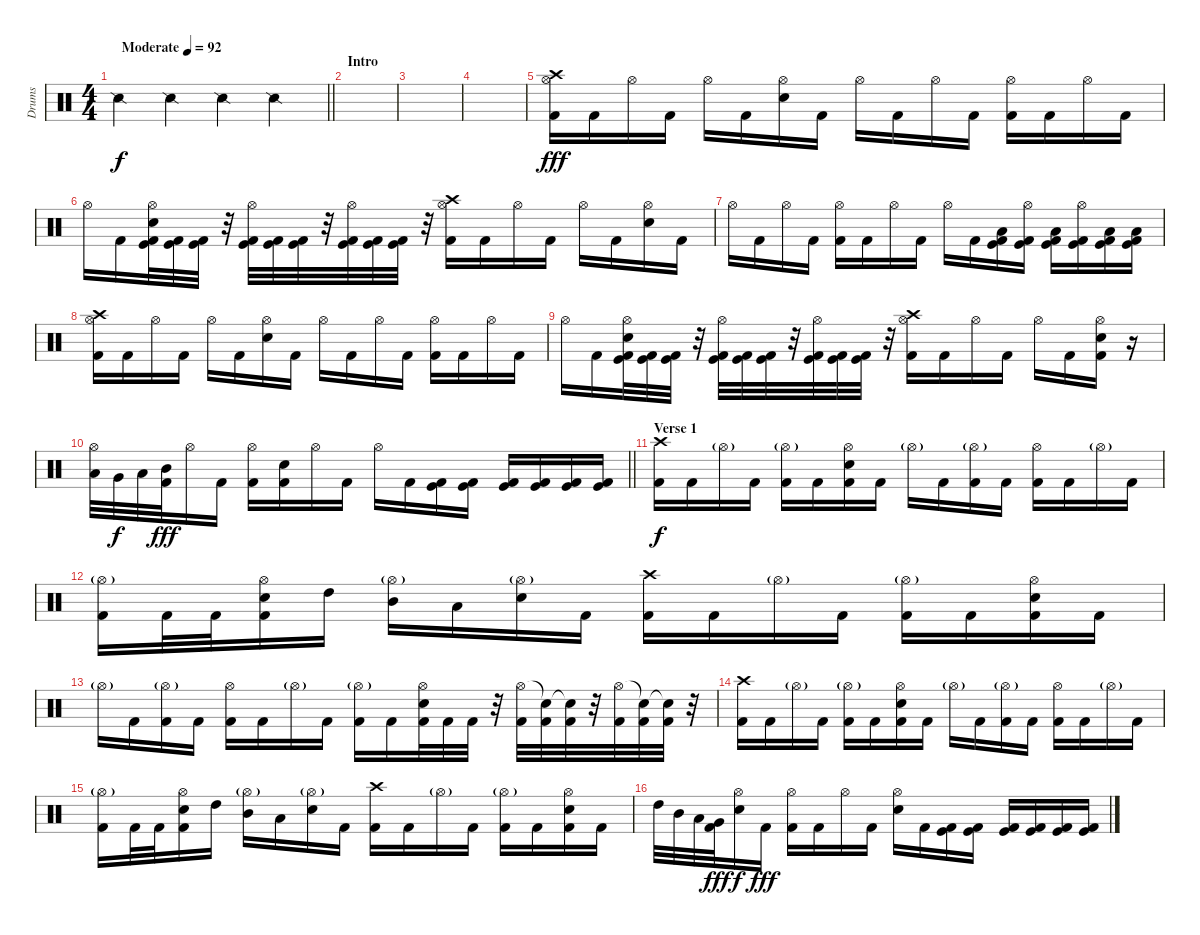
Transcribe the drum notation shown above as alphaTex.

\track ("Drums" "Drums") {instrument percussion}
\staff {score}
\articulation defaults
\ts (4 4)
\tempo (92 "Moderate")
\clef neutral
\barLineRight lightlight
\ks c "Snare (side stick) 2".4{dy f} "Snare (side stick) 2".4 "Snare (side stick) 2".4 "Snare (side stick) 2".4
|
\section ("" "Intro")
|
|
|
("Crash high (hit)" "Hi-Hat (open)" "Kick (hit) 2").16{dy fff} "Kick (hit) 2".16 "Hi-Hat (open)".16 "Kick (hit) 2".16 "Hi-Hat (open)".16 "Kick (hit) 2".16 ("Hi-Hat (open)" "Electric Snare (hit)").16 "Kick (hit) 2".16 "Hi-Hat (open)".16 "Kick (hit) 2".16 "Hi-Hat (open)".16 "Kick (hit) 2".16 ("Hi-Hat (open)" "Kick (hit) 2").16 "Kick (hit) 2".16 "Hi-Hat (open)".16 "Kick (hit) 2".16 |
"Hi-Hat (open)".16 "Kick (hit) 2".16 ("Hi-Hat (open)" "Electric Snare (hit)" "Kick (hit)" "Kick (hit) 2").32 ("Kick (hit)" "Kick (hit) 2").32 ("Kick (hit)" "Kick (hit) 2").32 r.32 ("Hi-Hat (open)" "Kick (hit)" "Kick (hit) 2").32 ("Kick (hit)" "Kick (hit) 2").32 ("Kick (hit)" "Kick (hit) 2").32 r.32 ("Hi-Hat (open)" "Kick (hit)" "Kick (hit) 2").32 ("Kick (hit)" "Kick (hit) 2").32 ("Kick (hit)" "Kick (hit) 2").32 r.32 ("Crash high (hit)" "Hi-Hat (open)" "Kick (hit) 2").16 "Kick (hit) 2".16 "Hi-Hat (open)".16 "Kick (hit) 2".16 "Hi-Hat (open)".16 "Kick (hit) 2".16 ("Hi-Hat (open)" "Electric Snare (hit)").16 "Kick (hit) 2".16 |
"Hi-Hat (open)".16 "Kick (hit) 2".16 "Hi-Hat (open)".16 "Kick (hit) 2".16 ("Hi-Hat (open)" "Kick (hit) 2").16 "Kick (hit) 2".16 "Hi-Hat (open)".16 "Kick (hit) 2".16 "Hi-Hat (open)".16 "Kick (hit) 2".16 ("Low Floor Tom (hit)" "Kick (hit)" "Kick (hit) 2").16 ("Hi-Hat (open)" "Kick (hit)" "Kick (hit) 2").16 ("Low Floor Tom (hit)" "Kick (hit)" "Kick (hit) 2").16 ("Hi-Hat (open)" "Kick (hit)" "Kick (hit) 2").16 ("Low Floor Tom (hit)" "Kick (hit)" "Kick (hit) 2").16 ("Low Floor Tom (hit)" "Kick (hit)" "Kick (hit) 2").16 |
("Crash high (hit)" "Hi-Hat (open)" "Kick (hit) 2").16 "Kick (hit) 2".16 "Hi-Hat (open)".16 "Kick (hit) 2".16 "Hi-Hat (open)".16 "Kick (hit) 2".16 ("Hi-Hat (open)" "Electric Snare (hit)").16 "Kick (hit) 2".16 "Hi-Hat (open)".16 "Kick (hit) 2".16 "Hi-Hat (open)".16 "Kick (hit) 2".16 ("Hi-Hat (open)" "Kick (hit) 2").16 "Kick (hit) 2".16 "Hi-Hat (open)".16 "Kick (hit) 2".16 |
"Hi-Hat (open)".16 "Kick (hit) 2".16 ("Hi-Hat (open)" "Electric Snare (hit)" "Kick (hit)" "Kick (hit) 2").32 ("Kick (hit)" "Kick (hit) 2").32 ("Kick (hit)" "Kick (hit) 2").32 r.32 ("Hi-Hat (open)" "Kick (hit)" "Kick (hit) 2").32 ("Kick (hit)" "Kick (hit) 2").32 ("Kick (hit)" "Kick (hit) 2").32 r.32 ("Hi-Hat (open)" "Kick (hit)" "Kick (hit) 2").32 ("Kick (hit)" "Kick (hit) 2").32 ("Kick (hit)" "Kick (hit) 2").32 r.32 ("Crash high (hit)" "Hi-Hat (open)" "Kick (hit) 2").16 "Kick (hit) 2".16 "Hi-Hat (open)".16 "Kick (hit) 2".16 "Hi-Hat (open)".16 "Kick (hit) 2".16 ("Hi-Hat (open)" "Electric Snare (hit)" "Kick (hit) 2").16 r.16 |
\barLineRight lightlight
("Hi-Hat (open)" "Low Floor Tom (hit)").32 "Very Low Tom (hit)".32{dy f} "Low Tom (hit)".32 ("Mid Tom (hit)" "Kick (hit) 2").32{dy fff} "Hi-Hat (open)".16 "Kick (hit) 2".16 ("Hi-Hat (open)" "Kick (hit) 2").16 ("Electric Snare (hit)" "Kick (hit) 2").16 "Hi-Hat (open)".16 "Kick (hit) 2".16 "Hi-Hat (open)".16 "Kick (hit) 2".16 ("Kick (hit)" "Kick (hit) 2").16 ("Kick (hit)" "Kick (hit) 2").16 ("Kick (hit)" "Kick (hit) 2").16 ("Kick (hit)" "Kick (hit) 2").16 ("Kick (hit)" "Kick (hit) 2").16 ("Kick (hit)" "Kick (hit) 2").16 |
\section ("" "Verse 1")
("Crash high (hit)" "Kick (hit) 2").16{dy f} "Kick (hit) 2".16 "Hi-Hat (open)"{g}.16 "Kick (hit) 2".16 ("Hi-Hat (open)"{g} "Kick (hit) 2").16 "Kick (hit) 2".16 ("Hi-Hat (open)" "Electric Snare (hit)" "Kick (hit) 2").16 "Kick (hit) 2".16 "Hi-Hat (open)"{g}.16 "Kick (hit) 2".16 ("Hi-Hat (open)"{g} "Kick (hit) 2").16 "Kick (hit) 2".16 ("Hi-Hat (open)" "Kick (hit) 2").16 "Kick (hit) 2".16 "Hi-Hat (open)"{g}.16 "Kick (hit) 2".16 |
("Hi-Hat (open)"{g} "Kick (hit) 2").16 "Kick (hit) 2".32 "Kick (hit) 2".32 ("Hi-Hat (open)" "Electric Snare (hit)" "Kick (hit) 2").16 "High Tom (hit)".16 ("Hi-Hat (open)"{g} "Mid Tom (hit)").16 "Low Tom (hit)".16 ("Hi-Hat (open)"{g} "Electric Snare (hit)").16 "Kick (hit) 2".16 ("Crash high (hit)" "Kick (hit) 2").16 "Kick (hit) 2".16 "Hi-Hat (open)"{g}.16 "Kick (hit) 2".16 ("Hi-Hat (open)"{g} "Kick (hit) 2").16 "Kick (hit) 2".16 ("Hi-Hat (open)" "Electric Snare (hit)" "Kick (hit) 2").16 "Kick (hit) 2".16 |
"Hi-Hat (open)"{g}.16 "Kick (hit) 2".16 ("Hi-Hat (open)"{g} "Kick (hit) 2").16 "Kick (hit) 2".16 ("Hi-Hat (open)" "Kick (hit) 2").16 "Kick (hit) 2".16 "Hi-Hat (open)"{g}.16 "Kick (hit) 2".16 ("Hi-Hat (open)"{g} "Kick (hit) 2").16 "Kick (hit) 2".16 ("Hi-Hat (open)" "Electric Snare (hit)" "Kick (hit) 2").32 "Kick (hit) 2".32 "Kick (hit) 2".32 r.32 ("Hi-Hat (open)" "Kick (hit) 2").32 ("Snare (hit)"{t} "Kick (hit) 2").32 ("Snare (hit)"{t} "Kick (hit) 2").32 r.32 ("Hi-Hat (open)" "Kick (hit) 2").32 ("Snare (hit)"{t} "Kick (hit) 2").32 ("Snare (hit)"{t} "Kick (hit) 2").32 r.32 |
("Crash high (hit)" "Kick (hit) 2").16 "Kick (hit) 2".16 "Hi-Hat (open)"{g}.16 "Kick (hit) 2".16 ("Hi-Hat (open)"{g} "Kick (hit) 2").16 "Kick (hit) 2".16 ("Hi-Hat (open)" "Electric Snare (hit)" "Kick (hit) 2").16 "Kick (hit) 2".16 "Hi-Hat (open)"{g}.16 "Kick (hit) 2".16 ("Hi-Hat (open)"{g} "Kick (hit) 2").16 "Kick (hit) 2".16 ("Hi-Hat (open)" "Kick (hit) 2").16 "Kick (hit) 2".16 "Hi-Hat (open)"{g}.16 "Kick (hit) 2".16 |
("Hi-Hat (open)"{g} "Kick (hit) 2").16 "Kick (hit) 2".32 "Kick (hit) 2".32 ("Hi-Hat (open)" "Electric Snare (hit)" "Kick (hit) 2").16 "High Tom (hit)".16 ("Hi-Hat (open)"{g} "Mid Tom (hit)").16 "Low Tom (hit)".16 ("Hi-Hat (open)"{g} "Electric Snare (hit)").16 "Kick (hit) 2".16 ("Crash high (hit)" "Kick (hit) 2").16 "Kick (hit) 2".16 "Hi-Hat (open)"{g}.16 "Kick (hit) 2".16 ("Hi-Hat (open)"{g} "Kick (hit) 2").16 "Kick (hit) 2".16 ("Hi-Hat (open)" "Electric Snare (hit)" "Kick (hit) 2").16 "Kick (hit) 2".16 |
"High Tom (hit)".32 "Mid Tom (hit)".32 "Low Tom (hit)".32 ("Very Low Tom (hit)" "Kick (hit) 2").32{dy fff} ("Hi-Hat (open)" "Electric Snare (hit)").16{dy f} "Kick (hit) 2".16{dy fff} ("Hi-Hat (open)" "Kick (hit) 2").16 "Kick (hit) 2".16 "Hi-Hat (open)".16 "Kick (hit) 2".16 ("Hi-Hat (open)" "Electric Snare (hit)").16 "Kick (hit) 2".16 ("Kick (hit)" "Kick (hit) 2").16 ("Kick (hit)" "Kick (hit) 2").16 ("Kick (hit)" "Kick (hit) 2").16 ("Kick (hit)" "Kick (hit) 2").16 ("Kick (hit)" "Kick (hit) 2").16 ("Kick (hit)" "Kick (hit) 2").16
